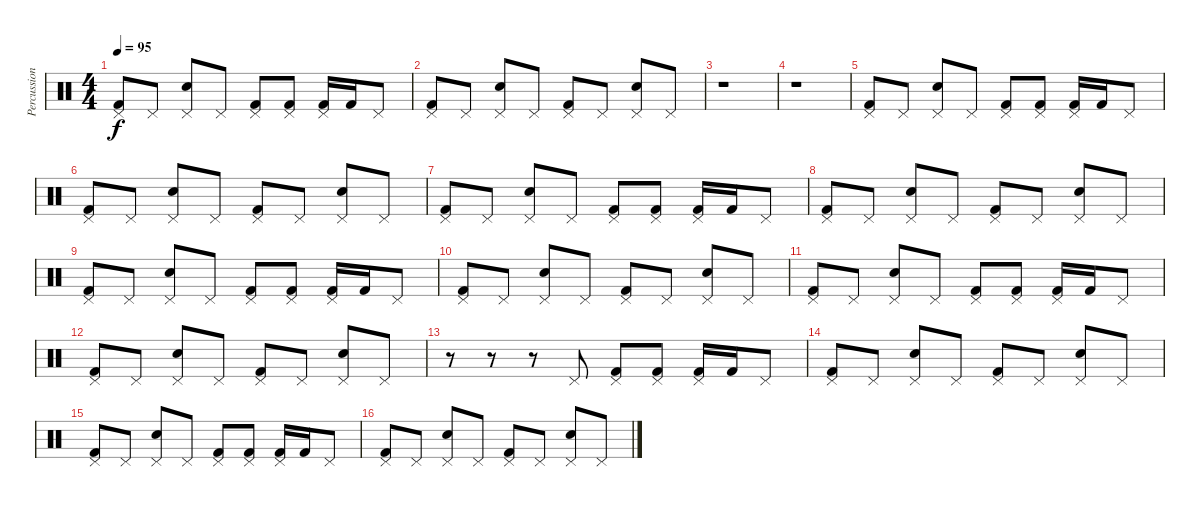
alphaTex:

\track ("Percussions" "Percussion") {instrument percussion}
\staff {score}
\articulation defaults
\ts (4 4)
\tempo 95
\clef neutral
\ks c
("Pedal Hi-Hat (hit)" "Kick (hit) 2").8{dy f} "Pedal Hi-Hat (hit)".8 ("Pedal Hi-Hat (hit)" "Electric Snare (hit)").8 "Pedal Hi-Hat (hit)".8 ("Pedal Hi-Hat (hit)" "Kick (hit) 2").8 ("Pedal Hi-Hat (hit)" "Kick (hit) 2").8 ("Pedal Hi-Hat (hit)" "Kick (hit) 2").16 "Kick (hit) 2".16 "Pedal Hi-Hat (hit)".8 |
("Pedal Hi-Hat (hit)" "Kick (hit) 2").8 "Pedal Hi-Hat (hit)".8 ("Pedal Hi-Hat (hit)" "Electric Snare (hit)").8 "Pedal Hi-Hat (hit)".8 ("Pedal Hi-Hat (hit)" "Kick (hit) 2").8 "Pedal Hi-Hat (hit)".8 ("Pedal Hi-Hat (hit)" "Electric Snare (hit)").8 "Pedal Hi-Hat (hit)".8 |
r.1 |
r.1 |
("Pedal Hi-Hat (hit)" "Kick (hit) 2").8 "Pedal Hi-Hat (hit)".8 ("Pedal Hi-Hat (hit)" "Electric Snare (hit)").8 "Pedal Hi-Hat (hit)".8 ("Pedal Hi-Hat (hit)" "Kick (hit) 2").8 ("Pedal Hi-Hat (hit)" "Kick (hit) 2").8 ("Pedal Hi-Hat (hit)" "Kick (hit) 2").16 "Kick (hit) 2".16 "Pedal Hi-Hat (hit)".8 |
("Pedal Hi-Hat (hit)" "Kick (hit) 2").8 "Pedal Hi-Hat (hit)".8 ("Pedal Hi-Hat (hit)" "Electric Snare (hit)").8 "Pedal Hi-Hat (hit)".8 ("Pedal Hi-Hat (hit)" "Kick (hit) 2").8 "Pedal Hi-Hat (hit)".8 ("Pedal Hi-Hat (hit)" "Electric Snare (hit)").8 "Pedal Hi-Hat (hit)".8 |
("Pedal Hi-Hat (hit)" "Kick (hit) 2").8 "Pedal Hi-Hat (hit)".8 ("Pedal Hi-Hat (hit)" "Electric Snare (hit)").8 "Pedal Hi-Hat (hit)".8 ("Pedal Hi-Hat (hit)" "Kick (hit) 2").8 ("Pedal Hi-Hat (hit)" "Kick (hit) 2").8 ("Pedal Hi-Hat (hit)" "Kick (hit) 2").16 "Kick (hit) 2".16 "Pedal Hi-Hat (hit)".8 |
("Pedal Hi-Hat (hit)" "Kick (hit) 2").8 "Pedal Hi-Hat (hit)".8 ("Pedal Hi-Hat (hit)" "Electric Snare (hit)").8 "Pedal Hi-Hat (hit)".8 ("Pedal Hi-Hat (hit)" "Kick (hit) 2").8 "Pedal Hi-Hat (hit)".8 ("Pedal Hi-Hat (hit)" "Electric Snare (hit)").8 "Pedal Hi-Hat (hit)".8 |
("Pedal Hi-Hat (hit)" "Kick (hit) 2").8 "Pedal Hi-Hat (hit)".8 ("Pedal Hi-Hat (hit)" "Electric Snare (hit)").8 "Pedal Hi-Hat (hit)".8 ("Pedal Hi-Hat (hit)" "Kick (hit) 2").8 ("Pedal Hi-Hat (hit)" "Kick (hit) 2").8 ("Pedal Hi-Hat (hit)" "Kick (hit) 2").16 "Kick (hit) 2".16 "Pedal Hi-Hat (hit)".8 |
("Pedal Hi-Hat (hit)" "Kick (hit) 2").8 "Pedal Hi-Hat (hit)".8 ("Pedal Hi-Hat (hit)" "Electric Snare (hit)").8 "Pedal Hi-Hat (hit)".8 ("Pedal Hi-Hat (hit)" "Kick (hit) 2").8 "Pedal Hi-Hat (hit)".8 ("Pedal Hi-Hat (hit)" "Electric Snare (hit)").8 "Pedal Hi-Hat (hit)".8 |
("Pedal Hi-Hat (hit)" "Kick (hit) 2").8 "Pedal Hi-Hat (hit)".8 ("Pedal Hi-Hat (hit)" "Electric Snare (hit)").8 "Pedal Hi-Hat (hit)".8 ("Pedal Hi-Hat (hit)" "Kick (hit) 2").8 ("Pedal Hi-Hat (hit)" "Kick (hit) 2").8 ("Pedal Hi-Hat (hit)" "Kick (hit) 2").16 "Kick (hit) 2".16 "Pedal Hi-Hat (hit)".8 |
("Pedal Hi-Hat (hit)" "Kick (hit) 2").8 "Pedal Hi-Hat (hit)".8 ("Pedal Hi-Hat (hit)" "Electric Snare (hit)").8 "Pedal Hi-Hat (hit)".8 ("Pedal Hi-Hat (hit)" "Kick (hit) 2").8 "Pedal Hi-Hat (hit)".8 ("Pedal Hi-Hat (hit)" "Electric Snare (hit)").8 "Pedal Hi-Hat (hit)".8 |
r.8 r.8 r.8 "Pedal Hi-Hat (hit)".8 ("Pedal Hi-Hat (hit)" "Kick (hit) 2").8 ("Pedal Hi-Hat (hit)" "Kick (hit) 2").8 ("Pedal Hi-Hat (hit)" "Kick (hit) 2").16 "Kick (hit) 2".16 "Pedal Hi-Hat (hit)".8 |
("Pedal Hi-Hat (hit)" "Kick (hit) 2").8 "Pedal Hi-Hat (hit)".8 ("Pedal Hi-Hat (hit)" "Electric Snare (hit)").8 "Pedal Hi-Hat (hit)".8 ("Pedal Hi-Hat (hit)" "Kick (hit) 2").8 "Pedal Hi-Hat (hit)".8 ("Pedal Hi-Hat (hit)" "Electric Snare (hit)").8 "Pedal Hi-Hat (hit)".8 |
("Pedal Hi-Hat (hit)" "Kick (hit) 2").8 "Pedal Hi-Hat (hit)".8 ("Pedal Hi-Hat (hit)" "Electric Snare (hit)").8 "Pedal Hi-Hat (hit)".8 ("Pedal Hi-Hat (hit)" "Kick (hit) 2").8 ("Pedal Hi-Hat (hit)" "Kick (hit) 2").8 ("Pedal Hi-Hat (hit)" "Kick (hit) 2").16 "Kick (hit) 2".16 "Pedal Hi-Hat (hit)".8 |
("Pedal Hi-Hat (hit)" "Kick (hit) 2").8 "Pedal Hi-Hat (hit)".8 ("Pedal Hi-Hat (hit)" "Electric Snare (hit)").8 "Pedal Hi-Hat (hit)".8 ("Pedal Hi-Hat (hit)" "Kick (hit) 2").8 "Pedal Hi-Hat (hit)".8 ("Pedal Hi-Hat (hit)" "Electric Snare (hit)").8 "Pedal Hi-Hat (hit)".8
